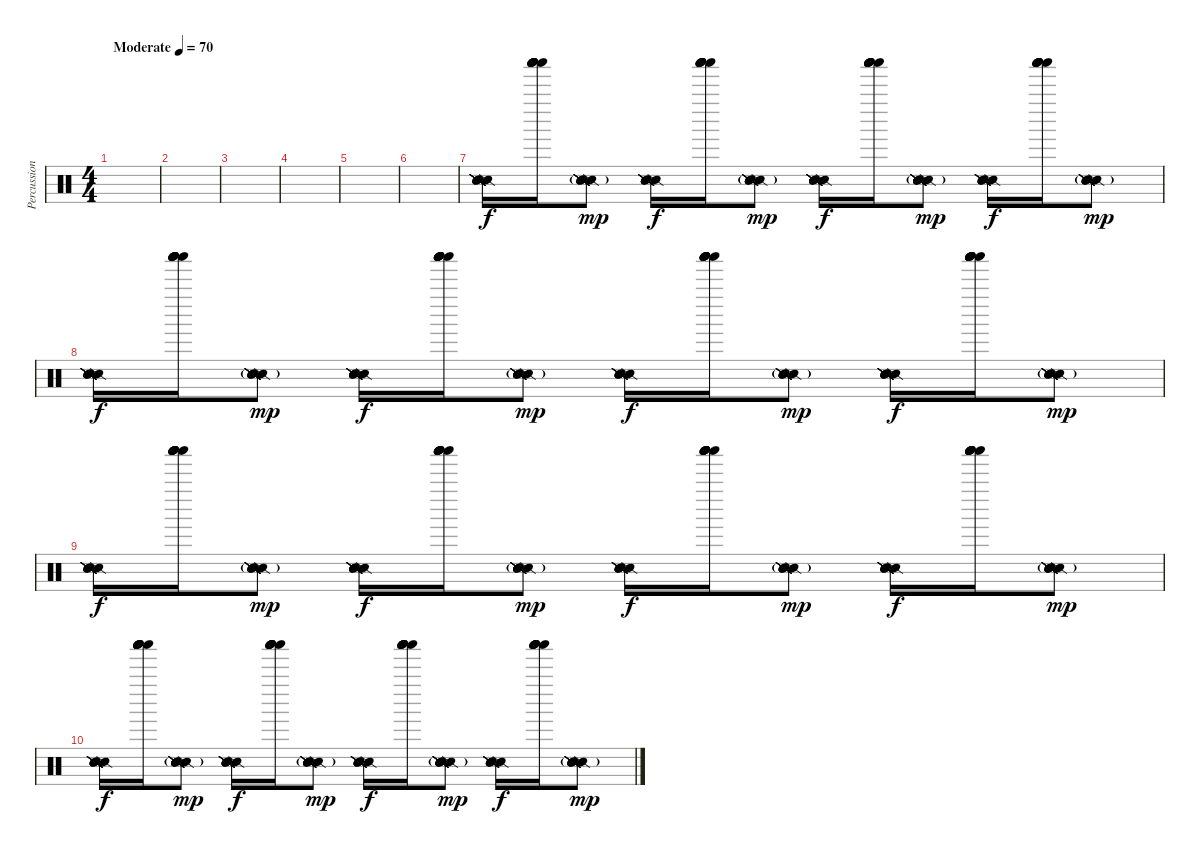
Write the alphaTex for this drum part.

\track ("Percussion" "Percussion") {instrument percussion}
\staff {score}
\articulation defaults
\ts (4 4)
\tempo (70 "Moderate")
\clef neutral
\ks c
|
|
|
|
|
|
("Snare (side stick) 2" "Snare (side stick) 2" "Snare (side stick) 2" "Snare (side stick) 2" "Snare (side stick) 2" "Snare (side stick) 2").16 ("Shaker (hit)" "Shaker (hit)" "Shaker (hit)" "Shaker (hit)" "Shaker (hit)" "Shaker (hit)").16 ("Snare (side stick) 2"{g} "Snare (side stick) 2"{g} "Snare (side stick) 2"{g} "Snare (side stick) 2"{g} "Snare (side stick) 2"{g} "Snare (side stick) 2"{g}).8{dy mp} ("Snare (side stick) 2" "Snare (side stick) 2" "Snare (side stick) 2" "Snare (side stick) 2" "Snare (side stick) 2" "Snare (side stick) 2").16{dy f} ("Shaker (hit)" "Shaker (hit)" "Shaker (hit)" "Shaker (hit)" "Shaker (hit)" "Shaker (hit)").16 ("Snare (side stick) 2"{g} "Snare (side stick) 2"{g} "Snare (side stick) 2"{g} "Snare (side stick) 2"{g} "Snare (side stick) 2"{g} "Snare (side stick) 2"{g}).8{dy mp} ("Snare (side stick) 2" "Snare (side stick) 2" "Snare (side stick) 2" "Snare (side stick) 2" "Snare (side stick) 2" "Snare (side stick) 2").16{dy f} ("Shaker (hit)" "Shaker (hit)" "Shaker (hit)" "Shaker (hit)" "Shaker (hit)" "Shaker (hit)").16 ("Snare (side stick) 2"{g} "Snare (side stick) 2"{g} "Snare (side stick) 2"{g} "Snare (side stick) 2"{g} "Snare (side stick) 2"{g} "Snare (side stick) 2"{g}).8{dy mp} ("Snare (side stick) 2" "Snare (side stick) 2" "Snare (side stick) 2" "Snare (side stick) 2" "Snare (side stick) 2" "Snare (side stick) 2").16{dy f} ("Shaker (hit)" "Shaker (hit)" "Shaker (hit)" "Shaker (hit)" "Shaker (hit)" "Shaker (hit)").16 ("Snare (side stick) 2"{g} "Snare (side stick) 2"{g} "Snare (side stick) 2"{g} "Snare (side stick) 2"{g} "Snare (side stick) 2"{g} "Snare (side stick) 2"{g}).8{dy mp} |
("Snare (side stick) 2" "Snare (side stick) 2" "Snare (side stick) 2" "Snare (side stick) 2" "Snare (side stick) 2" "Snare (side stick) 2").16{dy f} ("Shaker (hit)" "Shaker (hit)" "Shaker (hit)" "Shaker (hit)" "Shaker (hit)" "Shaker (hit)").16 ("Snare (side stick) 2"{g} "Snare (side stick) 2"{g} "Snare (side stick) 2"{g} "Snare (side stick) 2"{g} "Snare (side stick) 2"{g} "Snare (side stick) 2"{g}).8{dy mp} ("Snare (side stick) 2" "Snare (side stick) 2" "Snare (side stick) 2" "Snare (side stick) 2" "Snare (side stick) 2" "Snare (side stick) 2").16{dy f} ("Shaker (hit)" "Shaker (hit)" "Shaker (hit)" "Shaker (hit)" "Shaker (hit)" "Shaker (hit)").16 ("Snare (side stick) 2"{g} "Snare (side stick) 2"{g} "Snare (side stick) 2"{g} "Snare (side stick) 2"{g} "Snare (side stick) 2"{g} "Snare (side stick) 2"{g}).8{dy mp} ("Snare (side stick) 2" "Snare (side stick) 2" "Snare (side stick) 2" "Snare (side stick) 2" "Snare (side stick) 2" "Snare (side stick) 2").16{dy f} ("Shaker (hit)" "Shaker (hit)" "Shaker (hit)" "Shaker (hit)" "Shaker (hit)" "Shaker (hit)").16 ("Snare (side stick) 2"{g} "Snare (side stick) 2"{g} "Snare (side stick) 2"{g} "Snare (side stick) 2"{g} "Snare (side stick) 2"{g} "Snare (side stick) 2"{g}).8{dy mp} ("Snare (side stick) 2" "Snare (side stick) 2" "Snare (side stick) 2" "Snare (side stick) 2" "Snare (side stick) 2" "Snare (side stick) 2").16{dy f} ("Shaker (hit)" "Shaker (hit)" "Shaker (hit)" "Shaker (hit)" "Shaker (hit)" "Shaker (hit)").16 ("Snare (side stick) 2"{g} "Snare (side stick) 2"{g} "Snare (side stick) 2"{g} "Snare (side stick) 2"{g} "Snare (side stick) 2"{g} "Snare (side stick) 2"{g}).8{dy mp} |
("Snare (side stick) 2" "Snare (side stick) 2" "Snare (side stick) 2" "Snare (side stick) 2" "Snare (side stick) 2" "Snare (side stick) 2").16{dy f} ("Shaker (hit)" "Shaker (hit)" "Shaker (hit)" "Shaker (hit)" "Shaker (hit)" "Shaker (hit)").16 ("Snare (side stick) 2"{g} "Snare (side stick) 2"{g} "Snare (side stick) 2"{g} "Snare (side stick) 2"{g} "Snare (side stick) 2"{g} "Snare (side stick) 2"{g}).8{dy mp} ("Snare (side stick) 2" "Snare (side stick) 2" "Snare (side stick) 2" "Snare (side stick) 2" "Snare (side stick) 2" "Snare (side stick) 2").16{dy f} ("Shaker (hit)" "Shaker (hit)" "Shaker (hit)" "Shaker (hit)" "Shaker (hit)" "Shaker (hit)").16 ("Snare (side stick) 2"{g} "Snare (side stick) 2"{g} "Snare (side stick) 2"{g} "Snare (side stick) 2"{g} "Snare (side stick) 2"{g} "Snare (side stick) 2"{g}).8{dy mp} ("Snare (side stick) 2" "Snare (side stick) 2" "Snare (side stick) 2" "Snare (side stick) 2" "Snare (side stick) 2" "Snare (side stick) 2").16{dy f} ("Shaker (hit)" "Shaker (hit)" "Shaker (hit)" "Shaker (hit)" "Shaker (hit)" "Shaker (hit)").16 ("Snare (side stick) 2"{g} "Snare (side stick) 2"{g} "Snare (side stick) 2"{g} "Snare (side stick) 2"{g} "Snare (side stick) 2"{g} "Snare (side stick) 2"{g}).8{dy mp} ("Snare (side stick) 2" "Snare (side stick) 2" "Snare (side stick) 2" "Snare (side stick) 2" "Snare (side stick) 2" "Snare (side stick) 2").16{dy f} ("Shaker (hit)" "Shaker (hit)" "Shaker (hit)" "Shaker (hit)" "Shaker (hit)" "Shaker (hit)").16 ("Snare (side stick) 2"{g} "Snare (side stick) 2"{g} "Snare (side stick) 2"{g} "Snare (side stick) 2"{g} "Snare (side stick) 2"{g} "Snare (side stick) 2"{g}).8{dy mp} |
("Snare (side stick) 2" "Snare (side stick) 2" "Snare (side stick) 2" "Snare (side stick) 2" "Snare (side stick) 2" "Snare (side stick) 2").16{dy f} ("Shaker (hit)" "Shaker (hit)" "Shaker (hit)" "Shaker (hit)" "Shaker (hit)" "Shaker (hit)").16 ("Snare (side stick) 2"{g} "Snare (side stick) 2"{g} "Snare (side stick) 2"{g} "Snare (side stick) 2"{g} "Snare (side stick) 2"{g} "Snare (side stick) 2"{g}).8{dy mp} ("Snare (side stick) 2" "Snare (side stick) 2" "Snare (side stick) 2" "Snare (side stick) 2" "Snare (side stick) 2" "Snare (side stick) 2").16{dy f} ("Shaker (hit)" "Shaker (hit)" "Shaker (hit)" "Shaker (hit)" "Shaker (hit)" "Shaker (hit)").16 ("Snare (side stick) 2"{g} "Snare (side stick) 2"{g} "Snare (side stick) 2"{g} "Snare (side stick) 2"{g} "Snare (side stick) 2"{g} "Snare (side stick) 2"{g}).8{dy mp} ("Snare (side stick) 2" "Snare (side stick) 2" "Snare (side stick) 2" "Snare (side stick) 2" "Snare (side stick) 2" "Snare (side stick) 2").16{dy f} ("Shaker (hit)" "Shaker (hit)" "Shaker (hit)" "Shaker (hit)" "Shaker (hit)" "Shaker (hit)").16 ("Snare (side stick) 2"{g} "Snare (side stick) 2"{g} "Snare (side stick) 2"{g} "Snare (side stick) 2"{g} "Snare (side stick) 2"{g} "Snare (side stick) 2"{g}).8{dy mp} ("Snare (side stick) 2" "Snare (side stick) 2" "Snare (side stick) 2" "Snare (side stick) 2" "Snare (side stick) 2" "Snare (side stick) 2").16{dy f} ("Shaker (hit)" "Shaker (hit)" "Shaker (hit)" "Shaker (hit)" "Shaker (hit)" "Shaker (hit)").16 ("Snare (side stick) 2"{g} "Snare (side stick) 2"{g} "Snare (side stick) 2"{g} "Snare (side stick) 2"{g} "Snare (side stick) 2"{g} "Snare (side stick) 2"{g}).8{dy mp}
